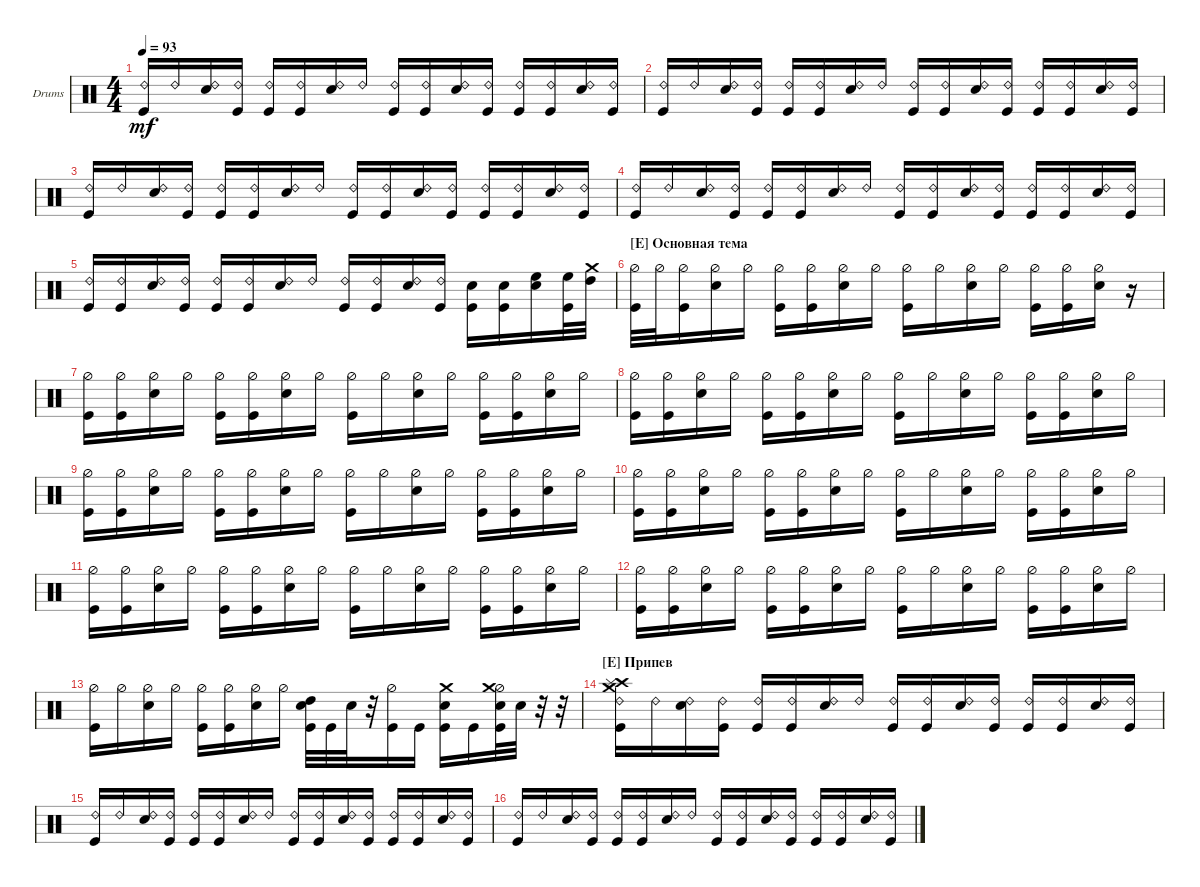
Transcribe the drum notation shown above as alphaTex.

\defaultSystemsLayout 4
\bracketExtendMode groupsimilarinstruments
\firstSystemTrackNameOrientation horizontal
\otherSystemsTrackNameOrientation horizontal
\track ("Drumkit" "Drums") {instrument percussion}
\staff {score}
\articulation defaults
\ts (4 4)
\tempo 93
\clef neutral
\ks c
("Kick (hit)" "Ride (bell) 2").16{dy mf} "Ride (bell) 2".16 ("Snare (hit) 2" "Ride (bell) 2").16 ("Kick (hit)" "Ride (bell) 2").16 ("Kick (hit)" "Ride (bell) 2").16 ("Kick (hit)" "Ride (bell) 2").16 ("Snare (hit) 2" "Ride (bell) 2").16 "Ride (bell) 2".16 ("Kick (hit)" "Ride (bell) 2").16 ("Kick (hit)" "Ride (bell) 2").16 ("Snare (hit) 2" "Ride (bell) 2").16 ("Kick (hit)" "Ride (bell) 2").16 ("Kick (hit)" "Ride (bell) 2").16 ("Kick (hit)" "Ride (bell) 2").16 ("Snare (hit) 2" "Ride (bell) 2").16 ("Kick (hit)" "Ride (bell) 2").16 |
("Kick (hit)" "Ride (bell) 2").16 "Ride (bell) 2".16 ("Snare (hit) 2" "Ride (bell) 2").16 ("Kick (hit)" "Ride (bell) 2").16 ("Kick (hit)" "Ride (bell) 2").16 ("Kick (hit)" "Ride (bell) 2").16 ("Snare (hit) 2" "Ride (bell) 2").16 "Ride (bell) 2".16 ("Kick (hit)" "Ride (bell) 2").16 ("Kick (hit)" "Ride (bell) 2").16 ("Snare (hit) 2" "Ride (bell) 2").16 ("Kick (hit)" "Ride (bell) 2").16 ("Kick (hit)" "Ride (bell) 2").16 ("Kick (hit)" "Ride (bell) 2").16 ("Snare (hit) 2" "Ride (bell) 2").16 ("Kick (hit)" "Ride (bell) 2").16 |
("Kick (hit)" "Ride (bell) 2").16 "Ride (bell) 2".16 ("Snare (hit) 2" "Ride (bell) 2").16 ("Kick (hit)" "Ride (bell) 2").16 ("Kick (hit)" "Ride (bell) 2").16 ("Kick (hit)" "Ride (bell) 2").16 ("Snare (hit) 2" "Ride (bell) 2").16 "Ride (bell) 2".16 ("Kick (hit)" "Ride (bell) 2").16 ("Kick (hit)" "Ride (bell) 2").16 ("Snare (hit) 2" "Ride (bell) 2").16 ("Kick (hit)" "Ride (bell) 2").16 ("Kick (hit)" "Ride (bell) 2").16 ("Kick (hit)" "Ride (bell) 2").16 ("Snare (hit) 2" "Ride (bell) 2").16 ("Kick (hit)" "Ride (bell) 2").16 |
("Kick (hit)" "Ride (bell) 2").16 "Ride (bell) 2".16 ("Snare (hit) 2" "Ride (bell) 2").16 ("Kick (hit)" "Ride (bell) 2").16 ("Kick (hit)" "Ride (bell) 2").16 ("Kick (hit)" "Ride (bell) 2").16 ("Snare (hit) 2" "Ride (bell) 2").16 "Ride (bell) 2".16 ("Kick (hit)" "Ride (bell) 2").16 ("Kick (hit)" "Ride (bell) 2").16 ("Snare (hit) 2" "Ride (bell) 2").16 ("Kick (hit)" "Ride (bell) 2").16 ("Kick (hit)" "Ride (bell) 2").16 ("Kick (hit)" "Ride (bell) 2").16 ("Snare (hit) 2" "Ride (bell) 2").16 ("Kick (hit)" "Ride (bell) 2").16 |
("Kick (hit)" "Ride (bell) 2").16 ("Ride (bell) 2" "Kick (hit)").16 ("Snare (hit) 2" "Ride (bell) 2").16 ("Kick (hit)" "Ride (bell) 2").16 ("Kick (hit)" "Ride (bell) 2").16 ("Kick (hit)" "Ride (bell) 2").16 ("Snare (hit) 2" "Ride (bell) 2").16 "Ride (bell) 2".16 ("Kick (hit)" "Ride (bell) 2").16 ("Kick (hit)" "Ride (bell) 2").16 ("Snare (hit) 2" "Ride (bell) 2").16 ("Kick (hit)" "Ride (bell) 2").16 ("Kick (hit)" "Snare (hit) 2").16 ("Kick (hit)" "Snare (hit) 2").16 ("Snare (hit) 2" "High Floor Tom (hit)").16 ("High Floor Tom (hit)" "Kick (hit)").32 ("High Tom (hit)" "Crash medium (hit)").32 |
\section ("E" "Основная тема")
("Kick (hit)" "Hi-Hat (half)").32 "Hi-Hat (half)".32 ("Kick (hit)" "Hi-Hat (half)").16 ("Snare (hit) 2" "Hi-Hat (half)").16 "Hi-Hat (half)".16 ("Kick (hit)" "Hi-Hat (half)").16 ("Kick (hit)" "Hi-Hat (half)").16 ("Snare (hit) 2" "Hi-Hat (half)").16 "Hi-Hat (half)".16 ("Kick (hit)" "Hi-Hat (half)").16 "Hi-Hat (half)".16 ("Snare (hit) 2" "Hi-Hat (half)").16 "Hi-Hat (half)".16 ("Kick (hit)" "Hi-Hat (half)").16 ("Kick (hit)" "Hi-Hat (half)").16 ("Snare (hit) 2" "Hi-Hat (half)").16 r.16 |
("Kick (hit)" "Hi-Hat (half)").16 ("Hi-Hat (half)" "Kick (hit)").16 ("Snare (hit) 2" "Hi-Hat (half)").16 "Hi-Hat (half)".16 ("Kick (hit)" "Hi-Hat (half)").16 ("Kick (hit)" "Hi-Hat (half)").16 ("Snare (hit) 2" "Hi-Hat (half)").16 "Hi-Hat (half)".16 ("Kick (hit)" "Hi-Hat (half)").16 "Hi-Hat (half)".16 ("Snare (hit) 2" "Hi-Hat (half)").16 "Hi-Hat (half)".16 ("Kick (hit)" "Hi-Hat (half)").16 ("Kick (hit)" "Hi-Hat (half)").16 ("Snare (hit) 2" "Hi-Hat (half)").16 "Hi-Hat (half)".16 |
("Kick (hit)" "Hi-Hat (half)").16 ("Hi-Hat (half)" "Kick (hit)").16 ("Snare (hit) 2" "Hi-Hat (half)").16 "Hi-Hat (half)".16 ("Kick (hit)" "Hi-Hat (half)").16 ("Kick (hit)" "Hi-Hat (half)").16 ("Snare (hit) 2" "Hi-Hat (half)").16 "Hi-Hat (half)".16 ("Kick (hit)" "Hi-Hat (half)").16 "Hi-Hat (half)".16 ("Snare (hit) 2" "Hi-Hat (half)").16 "Hi-Hat (half)".16 ("Kick (hit)" "Hi-Hat (half)").16 ("Kick (hit)" "Hi-Hat (half)").16 ("Snare (hit) 2" "Hi-Hat (half)").16 "Hi-Hat (half)".16 |
("Kick (hit)" "Hi-Hat (half)").16 ("Hi-Hat (half)" "Kick (hit)").16 ("Snare (hit) 2" "Hi-Hat (half)").16 "Hi-Hat (half)".16 ("Kick (hit)" "Hi-Hat (half)").16 ("Kick (hit)" "Hi-Hat (half)").16 ("Snare (hit) 2" "Hi-Hat (half)").16 "Hi-Hat (half)".16 ("Kick (hit)" "Hi-Hat (half)").16 "Hi-Hat (half)".16 ("Snare (hit) 2" "Hi-Hat (half)").16 "Hi-Hat (half)".16 ("Kick (hit)" "Hi-Hat (half)").16 ("Kick (hit)" "Hi-Hat (half)").16 ("Snare (hit) 2" "Hi-Hat (half)").16 "Hi-Hat (half)".16 |
("Kick (hit)" "Hi-Hat (half)").16 ("Hi-Hat (half)" "Kick (hit)").16 ("Snare (hit) 2" "Hi-Hat (half)").16 "Hi-Hat (half)".16 ("Kick (hit)" "Hi-Hat (half)").16 ("Kick (hit)" "Hi-Hat (half)").16 ("Snare (hit) 2" "Hi-Hat (half)").16 "Hi-Hat (half)".16 ("Kick (hit)" "Hi-Hat (half)").16 "Hi-Hat (half)".16 ("Snare (hit) 2" "Hi-Hat (half)").16 "Hi-Hat (half)".16 ("Kick (hit)" "Hi-Hat (half)").16 ("Kick (hit)" "Hi-Hat (half)").16 ("Snare (hit) 2" "Hi-Hat (half)").16 "Hi-Hat (half)".16 |
("Kick (hit)" "Hi-Hat (half)").16 ("Hi-Hat (half)" "Kick (hit)").16 ("Snare (hit) 2" "Hi-Hat (half)").16 "Hi-Hat (half)".16 ("Kick (hit)" "Hi-Hat (half)").16 ("Kick (hit)" "Hi-Hat (half)").16 ("Snare (hit) 2" "Hi-Hat (half)").16 "Hi-Hat (half)".16 ("Kick (hit)" "Hi-Hat (half)").16 "Hi-Hat (half)".16 ("Snare (hit) 2" "Hi-Hat (half)").16 "Hi-Hat (half)".16 ("Kick (hit)" "Hi-Hat (half)").16 ("Kick (hit)" "Hi-Hat (half)").16 ("Snare (hit) 2" "Hi-Hat (half)").16 "Hi-Hat (half)".16 |
("Kick (hit)" "Hi-Hat (half)").16 ("Hi-Hat (half)" "Kick (hit)").16 ("Snare (hit) 2" "Hi-Hat (half)").16 "Hi-Hat (half)".16 ("Kick (hit)" "Hi-Hat (half)").16 ("Kick (hit)" "Hi-Hat (half)").16 ("Snare (hit) 2" "Hi-Hat (half)").16 "Hi-Hat (half)".16 ("Kick (hit)" "Hi-Hat (half)").16 "Hi-Hat (half)".16 ("Snare (hit) 2" "Hi-Hat (half)").16 "Hi-Hat (half)".16 ("Kick (hit)" "Hi-Hat (half)").16 ("Kick (hit)" "Hi-Hat (half)").16 ("Snare (hit) 2" "Hi-Hat (half)").16 "Hi-Hat (half)".16 |
("Kick (hit)" "Hi-Hat (half)").16 "Hi-Hat (half)".16 ("Snare (hit) 2" "Hi-Hat (half)").16 "Hi-Hat (half)".16 ("Kick (hit)" "Hi-Hat (half)").16 ("Kick (hit)" "Hi-Hat (half)").16 ("Snare (hit) 2" "Hi-Hat (half)").16 "Hi-Hat (half)".16 ("Snare (hit) 2" "Kick (hit)" "High Tom (hit)").32 "Kick (hit)".32 "Snare (hit) 2".32 r.32 ("Kick (hit)" "Hi-Hat (half)").16 "Kick (hit)".16 ("Kick (hit)" "Snare (hit) 2" "Crash medium (hit)").16 "Kick (hit)".16 ("Kick (hit)" "Snare (hit) 2" "Hi-Hat (half)" "Crash medium (hit)").32 "Snare (hit) 2".32 r.32 r.32 |
\section ("E" "Припев")
("Kick (hit)" "Crash high (hit)" "Splash (hit)" "Crash medium (hit)" "Ride (bell) 2").16 "Ride (bell) 2".16 ("Snare (hit) 2" "Ride (bell) 2").16 ("Kick (hit)" "Ride (bell) 2").16 ("Kick (hit)" "Ride (bell) 2").16 ("Kick (hit)" "Ride (bell) 2").16 ("Snare (hit) 2" "Ride (bell) 2").16 "Ride (bell) 2".16 ("Kick (hit)" "Ride (bell) 2").16 ("Kick (hit)" "Ride (bell) 2").16 ("Snare (hit) 2" "Ride (bell) 2").16 ("Kick (hit)" "Ride (bell) 2").16 ("Kick (hit)" "Ride (bell) 2").16 ("Kick (hit)" "Ride (bell) 2").16 ("Snare (hit) 2" "Ride (bell) 2").16 ("Kick (hit)" "Ride (bell) 2").16 |
("Kick (hit)" "Ride (bell) 2").16 "Ride (bell) 2".16 ("Snare (hit) 2" "Ride (bell) 2").16 ("Kick (hit)" "Ride (bell) 2").16 ("Kick (hit)" "Ride (bell) 2").16 ("Kick (hit)" "Ride (bell) 2").16 ("Snare (hit) 2" "Ride (bell) 2").16 "Ride (bell) 2".16 ("Kick (hit)" "Ride (bell) 2").16 ("Kick (hit)" "Ride (bell) 2").16 ("Snare (hit) 2" "Ride (bell) 2").16 ("Kick (hit)" "Ride (bell) 2").16 ("Kick (hit)" "Ride (bell) 2").16 ("Kick (hit)" "Ride (bell) 2").16 ("Snare (hit) 2" "Ride (bell) 2").16 ("Kick (hit)" "Ride (bell) 2").16 |
("Kick (hit)" "Ride (bell) 2").16 "Ride (bell) 2".16 ("Snare (hit) 2" "Ride (bell) 2").16 ("Kick (hit)" "Ride (bell) 2").16 ("Kick (hit)" "Ride (bell) 2").16 ("Kick (hit)" "Ride (bell) 2").16 ("Snare (hit) 2" "Ride (bell) 2").16 "Ride (bell) 2".16 ("Kick (hit)" "Ride (bell) 2").16 ("Kick (hit)" "Ride (bell) 2").16 ("Snare (hit) 2" "Ride (bell) 2").16 ("Kick (hit)" "Ride (bell) 2").16 ("Kick (hit)" "Ride (bell) 2").16 ("Kick (hit)" "Ride (bell) 2").16 ("Snare (hit) 2" "Ride (bell) 2").16 ("Kick (hit)" "Ride (bell) 2").16
